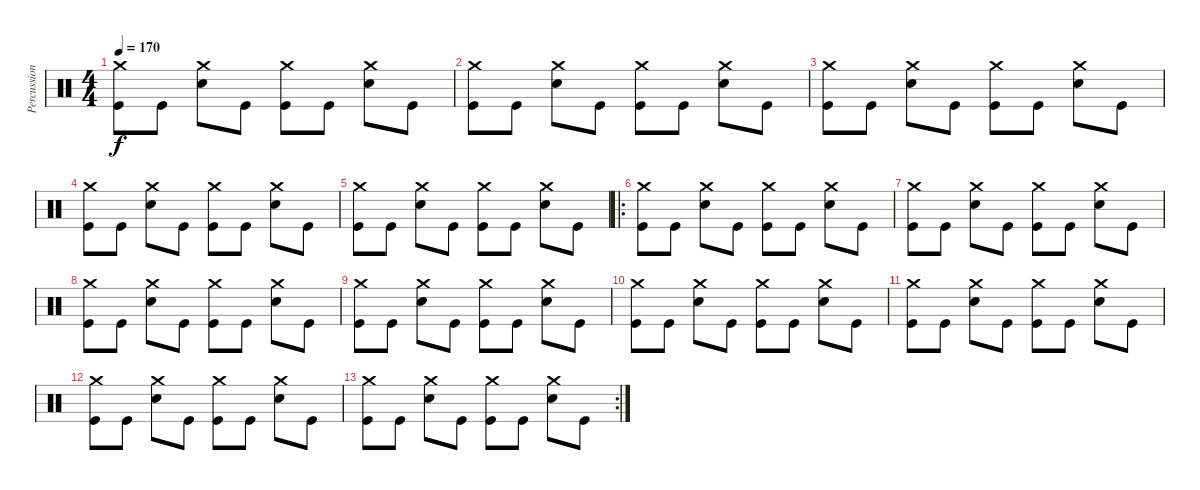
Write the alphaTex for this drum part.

\track ("Percussion" "Percussion") {instrument percussion}
\staff {score}
\articulation defaults
\ts (4 4)
\tempo 170
\clef neutral
\ks c
("Crash medium (hit)" "Kick (hit)").8{dy f} "Kick (hit)".8 ("Crash medium (hit)" "Snare (hit) 2").8 "Kick (hit)".8 ("Crash medium (hit)" "Kick (hit)").8 "Kick (hit)".8 ("Crash medium (hit)" "Snare (hit) 2").8 "Kick (hit)".8 |
("Crash medium (hit)" "Kick (hit)").8 "Kick (hit)".8 ("Crash medium (hit)" "Snare (hit) 2").8 "Kick (hit)".8 ("Crash medium (hit)" "Kick (hit)").8 "Kick (hit)".8 ("Crash medium (hit)" "Snare (hit) 2").8 "Kick (hit)".8 |
("Crash medium (hit)" "Kick (hit)").8 "Kick (hit)".8 ("Crash medium (hit)" "Snare (hit) 2").8 "Kick (hit)".8 ("Crash medium (hit)" "Kick (hit)").8 "Kick (hit)".8 ("Crash medium (hit)" "Snare (hit) 2").8 "Kick (hit)".8 |
("Crash medium (hit)" "Kick (hit)").8 "Kick (hit)".8 ("Crash medium (hit)" "Snare (hit) 2").8 "Kick (hit)".8 ("Crash medium (hit)" "Kick (hit)").8 "Kick (hit)".8 ("Crash medium (hit)" "Snare (hit) 2").8 "Kick (hit)".8 |
("Crash medium (hit)" "Kick (hit)").8 "Kick (hit)".8 ("Crash medium (hit)" "Snare (hit) 2").8 "Kick (hit)".8 ("Crash medium (hit)" "Kick (hit)").8 "Kick (hit)".8 ("Crash medium (hit)" "Snare (hit) 2").8 "Kick (hit)".8 |
\ro
("Crash medium (hit)" "Kick (hit)").8 "Kick (hit)".8 ("Crash medium (hit)" "Snare (hit) 2").8 "Kick (hit)".8 ("Crash medium (hit)" "Kick (hit)").8 "Kick (hit)".8 ("Crash medium (hit)" "Snare (hit) 2").8 "Kick (hit)".8 |
("Crash medium (hit)" "Kick (hit)").8 "Kick (hit)".8 ("Crash medium (hit)" "Snare (hit) 2").8 "Kick (hit)".8 ("Crash medium (hit)" "Kick (hit)").8 "Kick (hit)".8 ("Crash medium (hit)" "Snare (hit) 2").8 "Kick (hit)".8 |
("Crash medium (hit)" "Kick (hit)").8 "Kick (hit)".8 ("Crash medium (hit)" "Snare (hit) 2").8 "Kick (hit)".8 ("Crash medium (hit)" "Kick (hit)").8 "Kick (hit)".8 ("Crash medium (hit)" "Snare (hit) 2").8 "Kick (hit)".8 |
("Crash medium (hit)" "Kick (hit)").8 "Kick (hit)".8 ("Crash medium (hit)" "Snare (hit) 2").8 "Kick (hit)".8 ("Crash medium (hit)" "Kick (hit)").8 "Kick (hit)".8 ("Crash medium (hit)" "Snare (hit) 2").8 "Kick (hit)".8 |
("Crash medium (hit)" "Kick (hit)").8 "Kick (hit)".8 ("Crash medium (hit)" "Snare (hit) 2").8 "Kick (hit)".8 ("Crash medium (hit)" "Kick (hit)").8 "Kick (hit)".8 ("Crash medium (hit)" "Snare (hit) 2").8 "Kick (hit)".8 |
("Crash medium (hit)" "Kick (hit)").8 "Kick (hit)".8 ("Crash medium (hit)" "Snare (hit) 2").8 "Kick (hit)".8 ("Crash medium (hit)" "Kick (hit)").8 "Kick (hit)".8 ("Crash medium (hit)" "Snare (hit) 2").8 "Kick (hit)".8 |
("Crash medium (hit)" "Kick (hit)").8 "Kick (hit)".8 ("Crash medium (hit)" "Snare (hit) 2").8 "Kick (hit)".8 ("Crash medium (hit)" "Kick (hit)").8 "Kick (hit)".8 ("Crash medium (hit)" "Snare (hit) 2").8 "Kick (hit)".8 |
\rc 2
("Crash medium (hit)" "Kick (hit)").8 "Kick (hit)".8 ("Crash medium (hit)" "Snare (hit) 2").8 "Kick (hit)".8 ("Crash medium (hit)" "Kick (hit)").8 "Kick (hit)".8 ("Crash medium (hit)" "Snare (hit) 2").8 "Kick (hit)".8
